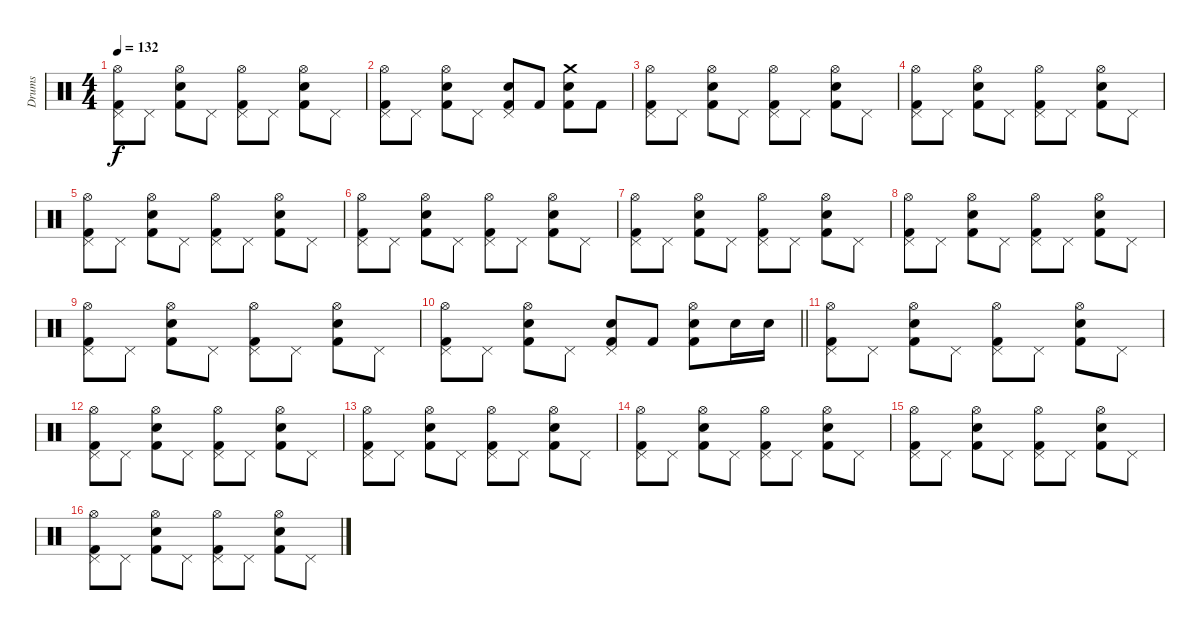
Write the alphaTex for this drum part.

\track ("Drums" "Drums") {instrument percussion}
\staff {score}
\articulation defaults
\ts (4 4)
\tempo 132
\clef neutral
\ks c
("Hi-Hat (open)" "Pedal Hi-Hat (hit)" "Kick (hit) 2").8{dy f} "Pedal Hi-Hat (hit)".8 ("Electric Snare (hit)" "Hi-Hat (open)" "Kick (hit) 2").8 "Pedal Hi-Hat (hit)".8 ("Hi-Hat (open)" "Pedal Hi-Hat (hit)" "Kick (hit) 2").8 "Pedal Hi-Hat (hit)".8 ("Electric Snare (hit)" "Hi-Hat (open)" "Kick (hit) 2").8 "Pedal Hi-Hat (hit)".8 |
("Hi-Hat (open)" "Pedal Hi-Hat (hit)" "Kick (hit) 2").8 "Pedal Hi-Hat (hit)".8 ("Electric Snare (hit)" "Hi-Hat (open)" "Kick (hit) 2").8 "Pedal Hi-Hat (hit)".8 ("Electric Snare (hit)" "Pedal Hi-Hat (hit)" "Kick (hit) 2").8 "Kick (hit) 2".8 ("Electric Snare (hit)" "Crash medium (hit)" "Kick (hit) 2").8 "Kick (hit) 2".8 |
("Hi-Hat (open)" "Pedal Hi-Hat (hit)" "Kick (hit) 2").8 "Pedal Hi-Hat (hit)".8 ("Electric Snare (hit)" "Hi-Hat (open)" "Kick (hit) 2").8 "Pedal Hi-Hat (hit)".8 ("Hi-Hat (open)" "Pedal Hi-Hat (hit)" "Kick (hit) 2").8 "Pedal Hi-Hat (hit)".8 ("Electric Snare (hit)" "Hi-Hat (open)" "Kick (hit) 2").8 "Pedal Hi-Hat (hit)".8 |
("Hi-Hat (open)" "Pedal Hi-Hat (hit)" "Kick (hit) 2").8 "Pedal Hi-Hat (hit)".8 ("Electric Snare (hit)" "Hi-Hat (open)" "Kick (hit) 2").8 "Pedal Hi-Hat (hit)".8 ("Hi-Hat (open)" "Pedal Hi-Hat (hit)" "Kick (hit) 2").8 "Pedal Hi-Hat (hit)".8 ("Electric Snare (hit)" "Hi-Hat (open)" "Kick (hit) 2").8 "Pedal Hi-Hat (hit)".8 |
("Hi-Hat (open)" "Pedal Hi-Hat (hit)" "Kick (hit) 2").8 "Pedal Hi-Hat (hit)".8 ("Electric Snare (hit)" "Hi-Hat (open)" "Kick (hit) 2").8 "Pedal Hi-Hat (hit)".8 ("Hi-Hat (open)" "Pedal Hi-Hat (hit)" "Kick (hit) 2").8 "Pedal Hi-Hat (hit)".8 ("Electric Snare (hit)" "Hi-Hat (open)" "Kick (hit) 2").8 "Pedal Hi-Hat (hit)".8 |
("Hi-Hat (open)" "Pedal Hi-Hat (hit)" "Kick (hit) 2").8 "Pedal Hi-Hat (hit)".8 ("Electric Snare (hit)" "Hi-Hat (open)" "Kick (hit) 2").8 "Pedal Hi-Hat (hit)".8 ("Hi-Hat (open)" "Pedal Hi-Hat (hit)" "Kick (hit) 2").8 "Pedal Hi-Hat (hit)".8 ("Electric Snare (hit)" "Hi-Hat (open)" "Kick (hit) 2").8 "Pedal Hi-Hat (hit)".8 |
("Hi-Hat (open)" "Pedal Hi-Hat (hit)" "Kick (hit) 2").8 "Pedal Hi-Hat (hit)".8 ("Electric Snare (hit)" "Hi-Hat (open)" "Kick (hit) 2").8 "Pedal Hi-Hat (hit)".8 ("Hi-Hat (open)" "Pedal Hi-Hat (hit)" "Kick (hit) 2").8 "Pedal Hi-Hat (hit)".8 ("Electric Snare (hit)" "Hi-Hat (open)" "Kick (hit) 2").8 "Pedal Hi-Hat (hit)".8 |
("Hi-Hat (open)" "Pedal Hi-Hat (hit)" "Kick (hit) 2").8 "Pedal Hi-Hat (hit)".8 ("Electric Snare (hit)" "Hi-Hat (open)" "Kick (hit) 2").8 "Pedal Hi-Hat (hit)".8 ("Hi-Hat (open)" "Pedal Hi-Hat (hit)" "Kick (hit) 2").8 "Pedal Hi-Hat (hit)".8 ("Electric Snare (hit)" "Hi-Hat (open)" "Kick (hit) 2").8 "Pedal Hi-Hat (hit)".8 |
("Hi-Hat (open)" "Pedal Hi-Hat (hit)" "Kick (hit) 2").8 "Pedal Hi-Hat (hit)".8 ("Electric Snare (hit)" "Hi-Hat (open)" "Kick (hit) 2").8 "Pedal Hi-Hat (hit)".8 ("Hi-Hat (open)" "Pedal Hi-Hat (hit)" "Kick (hit) 2").8 "Pedal Hi-Hat (hit)".8 ("Electric Snare (hit)" "Hi-Hat (open)" "Kick (hit) 2").8 "Pedal Hi-Hat (hit)".8 |
\barLineRight lightlight
("Hi-Hat (open)" "Pedal Hi-Hat (hit)" "Kick (hit) 2").8 "Pedal Hi-Hat (hit)".8 ("Electric Snare (hit)" "Hi-Hat (open)" "Kick (hit) 2").8 "Pedal Hi-Hat (hit)".8 ("Electric Snare (hit)" "Pedal Hi-Hat (hit)" "Kick (hit) 2").8 "Kick (hit) 2".8 ("Electric Snare (hit)" "Hi-Hat (open)" "Kick (hit) 2").8 "Electric Snare (hit)".16 "Electric Snare (hit)".16 |
\section ("" "")
("Hi-Hat (open)" "Pedal Hi-Hat (hit)" "Kick (hit) 2").8 "Pedal Hi-Hat (hit)".8 ("Electric Snare (hit)" "Hi-Hat (open)" "Kick (hit) 2").8 "Pedal Hi-Hat (hit)".8 ("Hi-Hat (open)" "Pedal Hi-Hat (hit)" "Kick (hit) 2").8 "Pedal Hi-Hat (hit)".8 ("Electric Snare (hit)" "Hi-Hat (open)" "Kick (hit) 2").8 "Pedal Hi-Hat (hit)".8 |
("Hi-Hat (open)" "Pedal Hi-Hat (hit)" "Kick (hit) 2").8 "Pedal Hi-Hat (hit)".8 ("Electric Snare (hit)" "Hi-Hat (open)" "Kick (hit) 2").8 "Pedal Hi-Hat (hit)".8 ("Hi-Hat (open)" "Pedal Hi-Hat (hit)" "Kick (hit) 2").8 "Pedal Hi-Hat (hit)".8 ("Electric Snare (hit)" "Hi-Hat (open)" "Kick (hit) 2").8 "Pedal Hi-Hat (hit)".8 |
("Hi-Hat (open)" "Pedal Hi-Hat (hit)" "Kick (hit) 2").8 "Pedal Hi-Hat (hit)".8 ("Electric Snare (hit)" "Hi-Hat (open)" "Kick (hit) 2").8 "Pedal Hi-Hat (hit)".8 ("Hi-Hat (open)" "Pedal Hi-Hat (hit)" "Kick (hit) 2").8 "Pedal Hi-Hat (hit)".8 ("Electric Snare (hit)" "Hi-Hat (open)" "Kick (hit) 2").8 "Pedal Hi-Hat (hit)".8 |
("Hi-Hat (open)" "Pedal Hi-Hat (hit)" "Kick (hit) 2").8 "Pedal Hi-Hat (hit)".8 ("Electric Snare (hit)" "Hi-Hat (open)" "Kick (hit) 2").8 "Pedal Hi-Hat (hit)".8 ("Hi-Hat (open)" "Pedal Hi-Hat (hit)" "Kick (hit) 2").8 "Pedal Hi-Hat (hit)".8 ("Electric Snare (hit)" "Hi-Hat (open)" "Kick (hit) 2").8 "Pedal Hi-Hat (hit)".8 |
("Hi-Hat (open)" "Pedal Hi-Hat (hit)" "Kick (hit) 2").8 "Pedal Hi-Hat (hit)".8 ("Electric Snare (hit)" "Hi-Hat (open)" "Kick (hit) 2").8 "Pedal Hi-Hat (hit)".8 ("Hi-Hat (open)" "Pedal Hi-Hat (hit)" "Kick (hit) 2").8 "Pedal Hi-Hat (hit)".8 ("Electric Snare (hit)" "Hi-Hat (open)" "Kick (hit) 2").8 "Pedal Hi-Hat (hit)".8 |
("Hi-Hat (open)" "Pedal Hi-Hat (hit)" "Kick (hit) 2").8 "Pedal Hi-Hat (hit)".8 ("Electric Snare (hit)" "Hi-Hat (open)" "Kick (hit) 2").8 "Pedal Hi-Hat (hit)".8 ("Hi-Hat (open)" "Pedal Hi-Hat (hit)" "Kick (hit) 2").8 "Pedal Hi-Hat (hit)".8 ("Electric Snare (hit)" "Hi-Hat (open)" "Kick (hit) 2").8 "Pedal Hi-Hat (hit)".8
